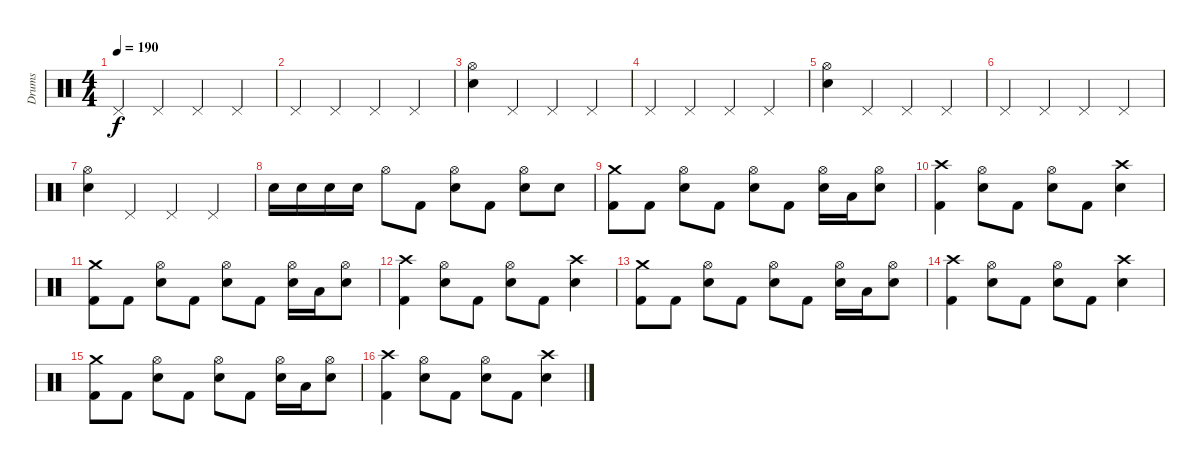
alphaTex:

\track ("Drums" "Drums") {instrument percussion}
\staff {score}
\articulation defaults
\ts (4 4)
\tempo 190
\clef neutral
\ks c "Pedal Hi-Hat (hit)".4{dy f} "Pedal Hi-Hat (hit)".4 "Pedal Hi-Hat (hit)".4 "Pedal Hi-Hat (hit)".4
|
"Pedal Hi-Hat (hit)".4 "Pedal Hi-Hat (hit)".4 "Pedal Hi-Hat (hit)".4 "Pedal Hi-Hat (hit)".4 |
("Hi-Hat (open)" "Snare (hit) 2").4 "Pedal Hi-Hat (hit)".4 "Pedal Hi-Hat (hit)".4 "Pedal Hi-Hat (hit)".4 |
"Pedal Hi-Hat (hit)".4 "Pedal Hi-Hat (hit)".4 "Pedal Hi-Hat (hit)".4 "Pedal Hi-Hat (hit)".4 |
("Hi-Hat (open)" "Snare (hit) 2").4 "Pedal Hi-Hat (hit)".4 "Pedal Hi-Hat (hit)".4 "Pedal Hi-Hat (hit)".4 |
"Pedal Hi-Hat (hit)".4 "Pedal Hi-Hat (hit)".4 "Pedal Hi-Hat (hit)".4 "Pedal Hi-Hat (hit)".4 |
("Hi-Hat (open)" "Snare (hit) 2").4 "Pedal Hi-Hat (hit)".4 "Pedal Hi-Hat (hit)".4 "Pedal Hi-Hat (hit)".4 |
"Snare (hit) 2".16 "Snare (hit) 2".16 "Snare (hit) 2".16 "Snare (hit) 2".16 "Hi-Hat (open)".8 "Kick (hit) 2".8 ("Hi-Hat (open)" "Snare (hit) 2").8 "Kick (hit) 2".8 ("Hi-Hat (open)" "Snare (hit) 2").8 "Snare (hit) 2".8 |
("Crash medium (hit)" "Kick (hit) 2").8 "Kick (hit) 2".8 ("Hi-Hat (open)" "Snare (hit) 2").8 "Kick (hit) 2".8 ("Hi-Hat (open)" "Snare (hit) 2").8 "Kick (hit) 2".8 ("Hi-Hat (open)" "Snare (hit) 2").16 "Low Tom (hit)".16 ("Hi-Hat (open)" "Snare (hit) 2").8 |
("Crash high (hit)" "Kick (hit) 2").4 ("Hi-Hat (open)" "Snare (hit) 2").8 "Kick (hit) 2".8 ("Hi-Hat (open)" "Snare (hit) 2").8 "Kick (hit) 2".8 ("Crash high (hit)" "Snare (hit) 2").4 |
("Crash medium (hit)" "Kick (hit) 2").8 "Kick (hit) 2".8 ("Hi-Hat (open)" "Snare (hit) 2").8 "Kick (hit) 2".8 ("Hi-Hat (open)" "Snare (hit) 2").8 "Kick (hit) 2".8 ("Hi-Hat (open)" "Snare (hit) 2").16 "Low Tom (hit)".16 ("Hi-Hat (open)" "Snare (hit) 2").8 |
("Crash high (hit)" "Kick (hit) 2").4 ("Hi-Hat (open)" "Snare (hit) 2").8 "Kick (hit) 2".8 ("Hi-Hat (open)" "Snare (hit) 2").8 "Kick (hit) 2".8 ("Crash high (hit)" "Snare (hit) 2").4 |
("Crash medium (hit)" "Kick (hit) 2").8 "Kick (hit) 2".8 ("Hi-Hat (open)" "Snare (hit) 2").8 "Kick (hit) 2".8 ("Hi-Hat (open)" "Snare (hit) 2").8 "Kick (hit) 2".8 ("Hi-Hat (open)" "Snare (hit) 2").16 "Low Tom (hit)".16 ("Hi-Hat (open)" "Snare (hit) 2").8 |
("Crash high (hit)" "Kick (hit) 2").4 ("Hi-Hat (open)" "Snare (hit) 2").8 "Kick (hit) 2".8 ("Hi-Hat (open)" "Snare (hit) 2").8 "Kick (hit) 2".8 ("Crash high (hit)" "Snare (hit) 2").4 |
("Crash medium (hit)" "Kick (hit) 2").8 "Kick (hit) 2".8 ("Hi-Hat (open)" "Snare (hit) 2").8 "Kick (hit) 2".8 ("Hi-Hat (open)" "Snare (hit) 2").8 "Kick (hit) 2".8 ("Hi-Hat (open)" "Snare (hit) 2").16 "Low Tom (hit)".16 ("Hi-Hat (open)" "Snare (hit) 2").8 |
("Crash high (hit)" "Kick (hit) 2").4 ("Hi-Hat (open)" "Snare (hit) 2").8 "Kick (hit) 2".8 ("Hi-Hat (open)" "Snare (hit) 2").8 "Kick (hit) 2".8 ("Crash high (hit)" "Snare (hit) 2").4
